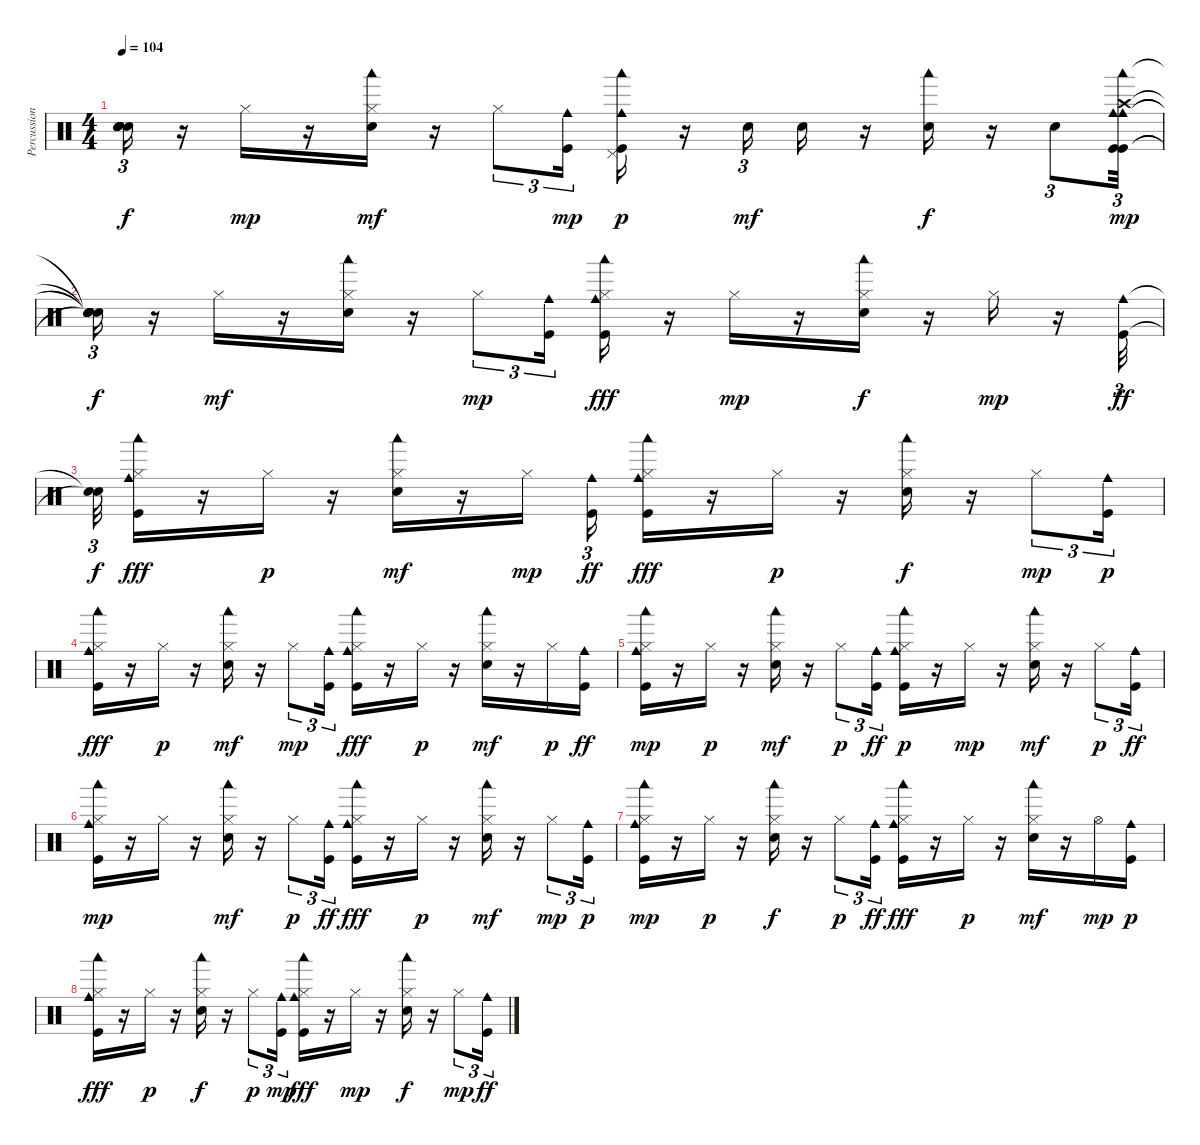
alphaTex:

\track ("Percussions (drums + hihats)" "Percussion") {instrument percussion}
\staff {score}
\articulation defaults
\ts (4 4)
\tempo 104
\clef neutral
\ks c
("Snare (hit)"{t} "Snare (hit)"{t} "Snare (hit)"{t} "Snare (hit)"{t} "Snare (hit)"{t} "Snare (hit)"{t}).16{tu (3 2) dy f} r.16 "Hi-Hat (closed)".16{dy mp} r.16 ("Hi-Hat (closed)" "Electric Snare (hit)" "Woodblock low (hit)").16{dy mf} r.16 "Hi-Hat (closed)".8{tu (3 2)} ("Kick (hit)" "Cowbell medium (hit)").16{tu (3 2) dy mp} ("Pedal Hi-Hat (hit)" "Kick (hit)" "Cowbell medium (hit)" "Woodblock low (hit)").16{dy p} r.16 "Electric Snare (hit)".16{tu (3 2) dy mf} "Electric Snare (hit)".16 r.16 ("Woodblock low (hit)" "Electric Snare (hit)").16{dy f} r.16 "Electric Snare (hit)".8{tu (3 2)} ("Cowbell medium (hit)" "Kick (hit)" "Kick (hit)" "Woodblock low (hit)" "Cowbell medium (hit)" "Crash high (hit)").32{tu (3 2) dy mp} |
("Snare (hit)"{t} "Snare (hit)"{t} "Snare (hit)"{t} "Snare (hit)"{t} "Snare (hit)"{t} "Snare (hit)"{t}).16{tu (3 2) dy f} r.16 "Hi-Hat (closed)".16{dy mf} r.16 ("Hi-Hat (closed)" "Electric Snare (hit)" "Woodblock low (hit)").16 r.16 "Hi-Hat (closed)".8{tu (3 2) dy mp} ("Kick (hit)" "Cowbell medium (hit)").16{tu (3 2)} ("Woodblock low (hit)" "Cowbell medium (hit)" "Hi-Hat (closed)" "Kick (hit)").16{dy fff} r.16 "Hi-Hat (closed)".16{dy mp} r.16 ("Woodblock low (hit)" "Electric Snare (hit)" "Hi-Hat (closed)").16{dy f} r.16 "Hi-Hat (closed)".16{dy mp} r.16 ("Cowbell medium (hit)" "Kick (hit)").32{tu (3 2) dy ff} |
("Snare (hit)"{t} "Snare (hit)"{t}).32{tu (3 2) dy f} ("Cowbell medium (hit)" "Hi-Hat (closed)" "Woodblock low (hit)" "Kick (hit)").16{dy fff} r.16 "Hi-Hat (closed)".16{dy p} r.16 ("Woodblock low (hit)" "Electric Snare (hit)" "Hi-Hat (closed)").16{dy mf} r.16 "Hi-Hat (closed)".16{dy mp} ("Cowbell medium (hit)" "Kick (hit)").16{tu (3 2) dy ff} ("Cowbell medium (hit)" "Woodblock low (hit)" "Hi-Hat (closed)" "Kick (hit)").16{dy fff} r.16 "Hi-Hat (closed)".16{dy p} r.16 ("Electric Snare (hit)" "Hi-Hat (closed)" "Woodblock low (hit)").16{dy f} r.16 "Hi-Hat (closed)".8{tu (3 2) dy mp} ("Kick (hit)" "Cowbell medium (hit)").16{tu (3 2) dy p} |
("Cowbell medium (hit)" "Hi-Hat (closed)" "Kick (hit)" "Woodblock low (hit)").16{dy fff} r.16 "Hi-Hat (closed)".16{dy p} r.16 ("Electric Snare (hit)" "Hi-Hat (closed)" "Woodblock low (hit)").16{dy mf} r.16 "Hi-Hat (closed)".8{tu (3 2) dy mp} ("Kick (hit)" "Cowbell medium (hit)").16{tu (3 2)} ("Hi-Hat (closed)" "Cowbell medium (hit)" "Woodblock low (hit)" "Kick (hit)").16{dy fff} r.16 "Hi-Hat (closed)".16{dy p} r.16 ("Hi-Hat (closed)" "Woodblock low (hit)" "Electric Snare (hit)").16{dy mf} r.16 "Hi-Hat (closed)".16{dy p} ("Cowbell medium (hit)" "Kick (hit)").16{dy ff} |
("Kick (hit)" "Cowbell medium (hit)" "Woodblock low (hit)" "Hi-Hat (closed)").16{dy mp} r.16 "Hi-Hat (closed)".16{dy p} r.16 ("Hi-Hat (closed)" "Electric Snare (hit)" "Woodblock low (hit)").16{dy mf} r.16 "Hi-Hat (closed)".8{tu (3 2) dy p} ("Cowbell medium (hit)" "Kick (hit)").16{tu (3 2) dy ff} ("Hi-Hat (closed)" "Kick (hit)" "Cowbell medium (hit)" "Woodblock low (hit)").16{dy p} r.16 "Hi-Hat (closed)".16{dy mp} r.16 ("Electric Snare (hit)" "Hi-Hat (closed)" "Woodblock low (hit)").16{dy mf} r.16 "Hi-Hat (closed)".8{tu (3 2) dy p} ("Cowbell medium (hit)" "Kick (hit)").16{tu (3 2) dy ff} |
("Hi-Hat (closed)" "Woodblock low (hit)" "Kick (hit)" "Cowbell medium (hit)").16{dy mp} r.16 "Hi-Hat (closed)".16 r.16 ("Electric Snare (hit)" "Hi-Hat (closed)" "Woodblock low (hit)").16{dy mf} r.16 "Hi-Hat (closed)".8{tu (3 2) dy p} ("Cowbell medium (hit)" "Kick (hit)").16{tu (3 2) dy ff} ("Cowbell medium (hit)" "Hi-Hat (closed)" "Kick (hit)" "Woodblock low (hit)").16{dy fff} r.16 "Hi-Hat (closed)".16{dy p} r.16 ("Electric Snare (hit)" "Woodblock low (hit)" "Hi-Hat (closed)").16{dy mf} r.16 "Hi-Hat (closed)".8{tu (3 2) dy mp} ("Kick (hit)" "Cowbell medium (hit)").16{tu (3 2) dy p} |
("Hi-Hat (closed)" "Woodblock low (hit)" "Kick (hit)" "Cowbell medium (hit)").16{dy mp} r.16 "Hi-Hat (closed)".16{dy p} r.16 ("Woodblock low (hit)" "Hi-Hat (closed)" "Electric Snare (hit)").16{dy f} r.16 "Hi-Hat (closed)".8{tu (3 2) dy p} ("Cowbell medium (hit)" "Kick (hit)").16{tu (3 2) dy ff} ("Hi-Hat (closed)" "Cowbell medium (hit)" "Woodblock low (hit)" "Kick (hit)").16{dy fff} r.16 "Hi-Hat (closed)".16{dy p} r.16 ("Woodblock low (hit)" "Electric Snare (hit)" "Hi-Hat (closed)").16{dy mf} r.16 "Hi-Hat (open)".16{dy mp} ("Kick (hit)" "Cowbell medium (hit)").16{dy p} |
("Cowbell medium (hit)" "Hi-Hat (closed)" "Kick (hit)" "Woodblock low (hit)").16{dy fff} r.16 "Hi-Hat (closed)".16{dy p} r.16 ("Electric Snare (hit)" "Hi-Hat (closed)" "Woodblock low (hit)").16{dy f} r.16 "Hi-Hat (closed)".8{tu (3 2) dy p} ("Kick (hit)" "Cowbell medium (hit)").16{tu (3 2) dy mp} ("Cowbell medium (hit)" "Hi-Hat (closed)" "Kick (hit)" "Woodblock low (hit)").16{dy fff} r.16 "Hi-Hat (closed)".16{dy mp} r.16 ("Hi-Hat (closed)" "Electric Snare (hit)" "Woodblock low (hit)").16{dy f} r.16 "Hi-Hat (closed)".8{tu (3 2) dy mp} ("Cowbell medium (hit)" "Kick (hit)").16{tu (3 2) dy ff}
